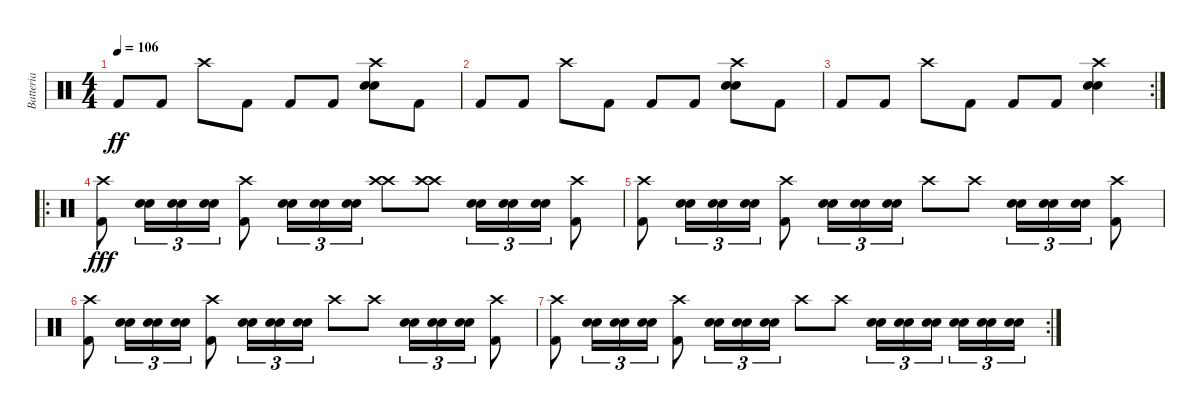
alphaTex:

\track ("Batteria" "Batteria") {instrument percussion}
\staff {score}
\articulation defaults
\ts (4 4)
\tempo 106
\clef neutral
\ks c "Kick (hit) 2".8{dy ff} "Kick (hit) 2".8 "Crash high (hit)".8 "Kick (hit) 2".8 "Kick (hit) 2".8 "Kick (hit) 2".8
("Crash high (hit)" "Electric Snare (hit)" "Electric Snare (hit)").8 "Kick (hit) 2".8 |
"Kick (hit) 2".8 "Kick (hit) 2".8 "Crash high (hit)".8 "Kick (hit) 2".8 "Kick (hit) 2".8 "Kick (hit) 2".8 ("Crash high (hit)" "Electric Snare (hit)" "Electric Snare (hit)").8 "Kick (hit) 2".8 |
\rc 2 "Kick (hit) 2".8 "Kick (hit) 2".8 "Crash high (hit)".8 "Kick (hit) 2".8 "Kick (hit) 2".8 "Kick (hit) 2".8
("Crash high (hit)" "Electric Snare (hit)" "Electric Snare (hit)").4 |
\ro
("Kick (hit) 2" "Crash high (hit)").8{dy fff volume 16} ("Snare (hit) 2" "Snare (hit) 2").16{tu (3 2)} ("Snare (hit) 2" "Snare (hit) 2").16{tu (3 2)} ("Snare (hit) 2" "Snare (hit) 2").16{tu (3 2)} ("Crash high (hit)" "Kick (hit) 2").8 ("Snare (hit) 2" "Snare (hit) 2").16{tu (3 2)} ("Snare (hit) 2" "Snare (hit) 2").16{tu (3 2)} ("Snare (hit) 2" "Snare (hit) 2").16{tu (3 2)} ("Crash high (hit)" "Crash high (hit)").8 ("Crash high (hit)" "Crash high (hit)").8 ("Snare (hit) 2" "Snare (hit) 2").16{tu (3 2)} ("Snare (hit) 2" "Snare (hit) 2").16{tu (3 2)} ("Snare (hit) 2" "Snare (hit) 2").16{tu (3 2)} ("Crash high (hit)" "Kick (hit) 2").8 |
("Kick (hit) 2" "Crash high (hit)").8 ("Snare (hit) 2" "Snare (hit) 2").16{tu (3 2)} ("Snare (hit) 2" "Snare (hit) 2").16{tu (3 2)} ("Snare (hit) 2" "Snare (hit) 2").16{tu (3 2)} ("Crash high (hit)" "Kick (hit) 2").8 ("Snare (hit) 2" "Snare (hit) 2").16{tu (3 2)} ("Snare (hit) 2" "Snare (hit) 2").16{tu (3 2)} ("Snare (hit) 2" "Snare (hit) 2").16{tu (3 2)} "Crash high (hit)".8 "Crash high (hit)".8 ("Snare (hit) 2" "Snare (hit) 2").16{tu (3 2)} ("Snare (hit) 2" "Snare (hit) 2").16{tu (3 2)} ("Snare (hit) 2" "Snare (hit) 2").16{tu (3 2)} ("Crash high (hit)" "Kick (hit) 2").8 |
("Kick (hit) 2" "Crash high (hit)").8 ("Snare (hit) 2" "Snare (hit) 2").16{tu (3 2)} ("Snare (hit) 2" "Snare (hit) 2").16{tu (3 2)} ("Snare (hit) 2" "Snare (hit) 2").16{tu (3 2)} ("Crash high (hit)" "Kick (hit) 2").8 ("Snare (hit) 2" "Snare (hit) 2").16{tu (3 2)} ("Snare (hit) 2" "Snare (hit) 2").16{tu (3 2)} ("Snare (hit) 2" "Snare (hit) 2").16{tu (3 2)} "Crash high (hit)".8 "Crash high (hit)".8 ("Snare (hit) 2" "Snare (hit) 2").16{tu (3 2)} ("Snare (hit) 2" "Snare (hit) 2").16{tu (3 2)} ("Snare (hit) 2" "Snare (hit) 2").16{tu (3 2)} ("Crash high (hit)" "Kick (hit) 2").8 |
\rc 2
("Kick (hit) 2" "Crash high (hit)").8 ("Snare (hit) 2" "Snare (hit) 2").16{tu (3 2)} ("Snare (hit) 2" "Snare (hit) 2").16{tu (3 2)} ("Snare (hit) 2" "Snare (hit) 2").16{tu (3 2)} ("Crash high (hit)" "Kick (hit) 2").8 ("Snare (hit) 2" "Snare (hit) 2").16{tu (3 2)} ("Snare (hit) 2" "Snare (hit) 2").16{tu (3 2)} ("Snare (hit) 2" "Snare (hit) 2").16{tu (3 2)} "Crash high (hit)".8 "Crash high (hit)".8 ("Snare (hit) 2" "Snare (hit) 2").16{tu (3 2)} ("Snare (hit) 2" "Snare (hit) 2").16{tu (3 2)} ("Snare (hit) 2" "Snare (hit) 2").16{tu (3 2) beam splitsecondary} ("Snare (hit) 2" "Snare (hit) 2").16{tu (3 2)} ("Snare (hit) 2" "Snare (hit) 2").16{tu (3 2)} ("Snare (hit) 2" "Snare (hit) 2").16{tu (3 2)}
